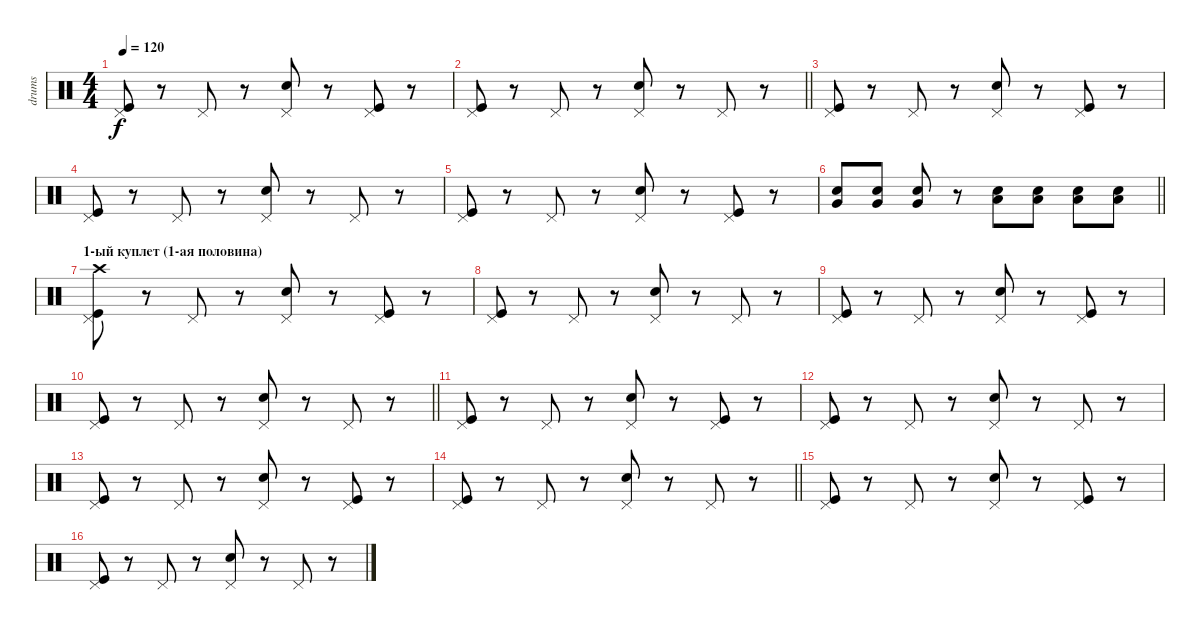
\track ("drums" "drums") {instrument percussion}
\staff {score}
\articulation defaults
\ts (4 4)
\tempo 120
\clef neutral
\ks c
("Kick (hit)" "Pedal Hi-Hat (hit)").8{dy f} r.8 "Pedal Hi-Hat (hit)".8 r.8 ("Snare (hit) 2" "Pedal Hi-Hat (hit)").8 r.8 ("Kick (hit)" "Pedal Hi-Hat (hit)").8 r.8 |
\barLineRight lightlight
("Kick (hit)" "Pedal Hi-Hat (hit)").8 r.8 "Pedal Hi-Hat (hit)".8 r.8 ("Snare (hit) 2" "Pedal Hi-Hat (hit)").8 r.8 "Pedal Hi-Hat (hit)".8 r.8 |
("Kick (hit)" "Pedal Hi-Hat (hit)").8 r.8 "Pedal Hi-Hat (hit)".8 r.8 ("Snare (hit) 2" "Pedal Hi-Hat (hit)").8 r.8 ("Kick (hit)" "Pedal Hi-Hat (hit)").8 r.8 |
("Kick (hit)" "Pedal Hi-Hat (hit)").8 r.8 "Pedal Hi-Hat (hit)".8 r.8 ("Snare (hit) 2" "Pedal Hi-Hat (hit)").8 r.8 "Pedal Hi-Hat (hit)".8 r.8 |
("Kick (hit)" "Pedal Hi-Hat (hit)").8 r.8 "Pedal Hi-Hat (hit)".8 r.8 ("Snare (hit) 2" "Pedal Hi-Hat (hit)").8 r.8 ("Kick (hit)" "Pedal Hi-Hat (hit)").8 r.8 |
\barLineRight lightlight
("Very Low Tom (hit)" "Snare (hit) 2").8 ("Very Low Tom (hit)" "Snare (hit) 2").8 ("Very Low Tom (hit)" "Snare (hit) 2").8 r.8 ("Low Tom (hit)" "Snare (hit) 2").8 ("Low Tom (hit)" "Snare (hit) 2").8 ("Low Tom (hit)" "Snare (hit) 2").8 ("Low Tom (hit)" "Snare (hit) 2").8 |
\section ("" "1-ый куплет (1-ая половина) ")
("Kick (hit)" "Crash high (hit)" "Pedal Hi-Hat (hit)").8 r.8 "Pedal Hi-Hat (hit)".8 r.8 ("Snare (hit) 2" "Pedal Hi-Hat (hit)").8 r.8 ("Kick (hit)" "Pedal Hi-Hat (hit)").8 r.8 |
("Kick (hit)" "Pedal Hi-Hat (hit)").8 r.8 "Pedal Hi-Hat (hit)".8 r.8 ("Snare (hit) 2" "Pedal Hi-Hat (hit)").8 r.8 "Pedal Hi-Hat (hit)".8 r.8 |
("Kick (hit)" "Pedal Hi-Hat (hit)").8 r.8 "Pedal Hi-Hat (hit)".8 r.8 ("Snare (hit) 2" "Pedal Hi-Hat (hit)").8 r.8 ("Kick (hit)" "Pedal Hi-Hat (hit)").8 r.8 |
\barLineRight lightlight
("Kick (hit)" "Pedal Hi-Hat (hit)").8 r.8 "Pedal Hi-Hat (hit)".8 r.8 ("Snare (hit) 2" "Pedal Hi-Hat (hit)").8 r.8 "Pedal Hi-Hat (hit)".8 r.8 |
("Kick (hit)" "Pedal Hi-Hat (hit)").8 r.8 "Pedal Hi-Hat (hit)".8 r.8 ("Snare (hit) 2" "Pedal Hi-Hat (hit)").8 r.8 ("Kick (hit)" "Pedal Hi-Hat (hit)").8 r.8 |
("Kick (hit)" "Pedal Hi-Hat (hit)").8 r.8 "Pedal Hi-Hat (hit)".8 r.8 ("Snare (hit) 2" "Pedal Hi-Hat (hit)").8 r.8 "Pedal Hi-Hat (hit)".8 r.8 |
("Kick (hit)" "Pedal Hi-Hat (hit)").8 r.8 "Pedal Hi-Hat (hit)".8 r.8 ("Snare (hit) 2" "Pedal Hi-Hat (hit)").8 r.8 ("Kick (hit)" "Pedal Hi-Hat (hit)").8 r.8 |
\barLineRight lightlight
("Kick (hit)" "Pedal Hi-Hat (hit)").8 r.8 "Pedal Hi-Hat (hit)".8 r.8 ("Snare (hit) 2" "Pedal Hi-Hat (hit)").8 r.8 "Pedal Hi-Hat (hit)".8 r.8 |
("Kick (hit)" "Pedal Hi-Hat (hit)").8 r.8 "Pedal Hi-Hat (hit)".8 r.8 ("Snare (hit) 2" "Pedal Hi-Hat (hit)").8 r.8 ("Kick (hit)" "Pedal Hi-Hat (hit)").8 r.8 |
("Kick (hit)" "Pedal Hi-Hat (hit)").8 r.8 "Pedal Hi-Hat (hit)".8 r.8 ("Snare (hit) 2" "Pedal Hi-Hat (hit)").8 r.8 "Pedal Hi-Hat (hit)".8 r.8
